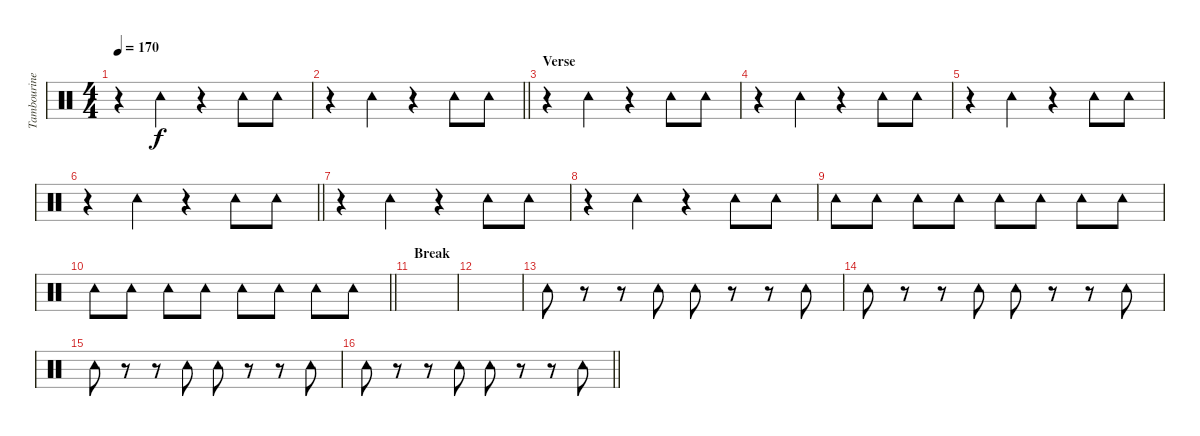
\track ("Tambourine" "Tambourine") {instrument percussion}
\staff {score}
\articulation defaults
\ts (4 4)
\tempo 170
\clef neutral
\ks c
r.4{dy f} "Tambourine (hit)".4 r.4 "Tambourine (hit)".8 "Tambourine (hit)".8 |
\barLineRight lightlight
r.4 "Tambourine (hit)".4 r.4 "Tambourine (hit)".8 "Tambourine (hit)".8 |
\section ("" "Verse")
r.4 "Tambourine (hit)".4 r.4 "Tambourine (hit)".8 "Tambourine (hit)".8 |
r.4 "Tambourine (hit)".4 r.4 "Tambourine (hit)".8 "Tambourine (hit)".8 |
r.4 "Tambourine (hit)".4 r.4 "Tambourine (hit)".8 "Tambourine (hit)".8 |
\barLineRight lightlight
r.4 "Tambourine (hit)".4 r.4 "Tambourine (hit)".8 "Tambourine (hit)".8 |
r.4 "Tambourine (hit)".4 r.4 "Tambourine (hit)".8 "Tambourine (hit)".8 |
r.4 "Tambourine (hit)".4 r.4 "Tambourine (hit)".8 "Tambourine (hit)".8 |
"Tambourine (hit)".8 "Tambourine (hit)".8 "Tambourine (hit)".8 "Tambourine (hit)".8 "Tambourine (hit)".8 "Tambourine (hit)".8 "Tambourine (hit)".8 "Tambourine (hit)".8 |
\barLineRight lightlight "Tambourine (hit)".8 "Tambourine (hit)".8 "Tambourine (hit)".8 "Tambourine (hit)".8 "Tambourine (hit)".8 "Tambourine (hit)".8 "Tambourine (hit)".8 "Tambourine (hit)".8
|
\section ("" "Break")
|
|
"Tambourine (hit)".8 r.8 r.8 "Tambourine (hit)".8 "Tambourine (hit)".8 r.8 r.8 "Tambourine (hit)".8 |
"Tambourine (hit)".8 r.8 r.8 "Tambourine (hit)".8 "Tambourine (hit)".8 r.8 r.8 "Tambourine (hit)".8 |
"Tambourine (hit)".8 r.8 r.8 "Tambourine (hit)".8 "Tambourine (hit)".8 r.8 r.8 "Tambourine (hit)".8 |
\barLineRight lightlight "Tambourine (hit)".8
r.8 r.8 "Tambourine (hit)".8 "Tambourine (hit)".8 r.8 r.8 "Tambourine (hit)".8
